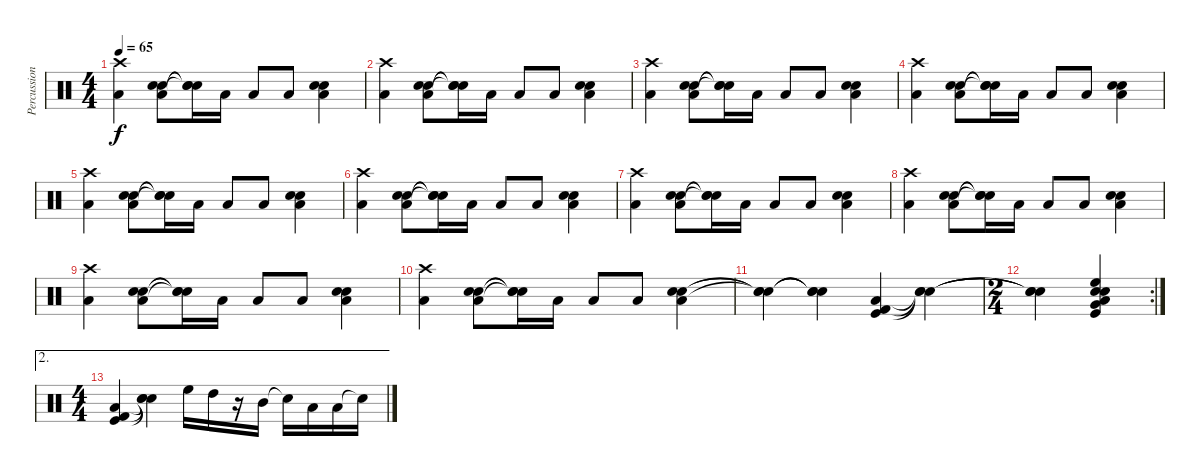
\track ("Percussion" "Percussion") {instrument percussion}
\staff {score}
\articulation defaults
\ts (4 4)
\tempo 65
\clef neutral
\ks c
("Crash high (hit)" "Low Tom (hit)").4{dy f} ("Snare (hit) 2" "Electric Snare (hit)" "Low Tom (hit)").8 ("Snare (hit)"{t} "Snare (hit)"{t} "Snare (hit)"{t}).16 "Low Tom (hit)".16 "Low Tom (hit)".8 "Low Tom (hit)".8 ("Snare (hit) 2" "Electric Snare (hit)" "Low Tom (hit)").4 |
("Crash high (hit)" "Low Tom (hit)").4 ("Snare (hit) 2" "Electric Snare (hit)" "Low Tom (hit)").8 ("Snare (hit)"{t} "Snare (hit)"{t} "Snare (hit)"{t}).16 "Low Tom (hit)".16 "Low Tom (hit)".8 "Low Tom (hit)".8 ("Snare (hit) 2" "Electric Snare (hit)" "Low Tom (hit)").4 |
("Crash high (hit)" "Low Tom (hit)").4 ("Snare (hit) 2" "Electric Snare (hit)" "Low Tom (hit)").8 ("Snare (hit)"{t} "Snare (hit)"{t} "Snare (hit)"{t}).16 "Low Tom (hit)".16 "Low Tom (hit)".8 "Low Tom (hit)".8 ("Snare (hit) 2" "Electric Snare (hit)" "Low Tom (hit)").4 |
("Crash high (hit)" "Low Tom (hit)").4 ("Snare (hit) 2" "Electric Snare (hit)" "Low Tom (hit)").8 ("Snare (hit)"{t} "Snare (hit)"{t} "Snare (hit)"{t}).16 "Low Tom (hit)".16 "Low Tom (hit)".8 "Low Tom (hit)".8 ("Snare (hit) 2" "Electric Snare (hit)" "Low Tom (hit)").4 |
("Crash high (hit)" "Low Tom (hit)").4 ("Snare (hit) 2" "Electric Snare (hit)" "Low Tom (hit)").8 ("Snare (hit)"{t} "Snare (hit)"{t} "Snare (hit)"{t}).16 "Low Tom (hit)".16 "Low Tom (hit)".8 "Low Tom (hit)".8 ("Snare (hit) 2" "Electric Snare (hit)" "Low Tom (hit)").4 |
("Crash high (hit)" "Low Tom (hit)").4 ("Snare (hit) 2" "Electric Snare (hit)" "Low Tom (hit)").8 ("Snare (hit)"{t} "Snare (hit)"{t} "Snare (hit)"{t}).16 "Low Tom (hit)".16 "Low Tom (hit)".8 "Low Tom (hit)".8 ("Snare (hit) 2" "Electric Snare (hit)" "Low Tom (hit)").4 |
("Crash high (hit)" "Low Tom (hit)").4 ("Snare (hit) 2" "Electric Snare (hit)" "Low Tom (hit)").8 ("Snare (hit)"{t} "Snare (hit)"{t} "Snare (hit)"{t}).16 "Low Tom (hit)".16 "Low Tom (hit)".8 "Low Tom (hit)".8 ("Snare (hit) 2" "Electric Snare (hit)" "Low Tom (hit)").4 |
("Crash high (hit)" "Low Tom (hit)").4 ("Snare (hit) 2" "Electric Snare (hit)" "Low Tom (hit)").8 ("Snare (hit)"{t} "Snare (hit)"{t} "Snare (hit)"{t}).16 "Low Tom (hit)".16 "Low Tom (hit)".8 "Low Tom (hit)".8 ("Snare (hit) 2" "Electric Snare (hit)" "Low Tom (hit)").4 |
("Crash high (hit)" "Low Tom (hit)").4 ("Snare (hit) 2" "Electric Snare (hit)" "Low Tom (hit)").8 ("Snare (hit)"{t} "Snare (hit)"{t} "Snare (hit)"{t}).16 "Low Tom (hit)".16 "Low Tom (hit)".8 "Low Tom (hit)".8 ("Snare (hit) 2" "Electric Snare (hit)" "Low Tom (hit)").4 |
("Crash high (hit)" "Low Tom (hit)").4 ("Snare (hit) 2" "Electric Snare (hit)" "Low Tom (hit)").8 ("Snare (hit)"{t} "Snare (hit)"{t} "Snare (hit)"{t}).16 "Low Tom (hit)".16 "Low Tom (hit)".8 "Low Tom (hit)".8 ("Snare (hit) 2" "Electric Snare (hit)" "Low Tom (hit)").4 |
("Snare (hit)"{t} "Snare (hit)"{t} "Snare (hit)"{t}).4 ("Snare (hit)"{t} "Snare (hit)"{t} "Snare (hit)"{t}).4 ("Low Floor Tom (hit)" "Kick (hit)" "Kick (hit) 2").4 ("Snare (hit)"{t} "Snare (hit)"{t} "Snare (hit)"{t}).4 |
\rc 2
\ts (2 4)
("Snare (hit)"{t} "Snare (hit)"{t} "Snare (hit)"{t}).4 ("Electric Snare (hit)" "Kick (hit)" "High Floor Tom (hit)" "Hand Clap (hit)" "Low Tom (hit)" "Very Low Tom (hit)").4 |
\ae 2
\ts (4 4)
("Low Floor Tom (hit)" "Kick (hit)" "Kick (hit) 2").4 ("Snare (hit)"{t} "Snare (hit)"{t} "Snare (hit)"{t}).4 "High Floor Tom (hit)".16 "High Tom (hit)".16 r.16 "Mid Tom (hit)".16 "Snare (hit)"{t}.16 "Low Tom (hit)".16 "Low Tom (hit)".16 "Snare (hit)"{t}.16
